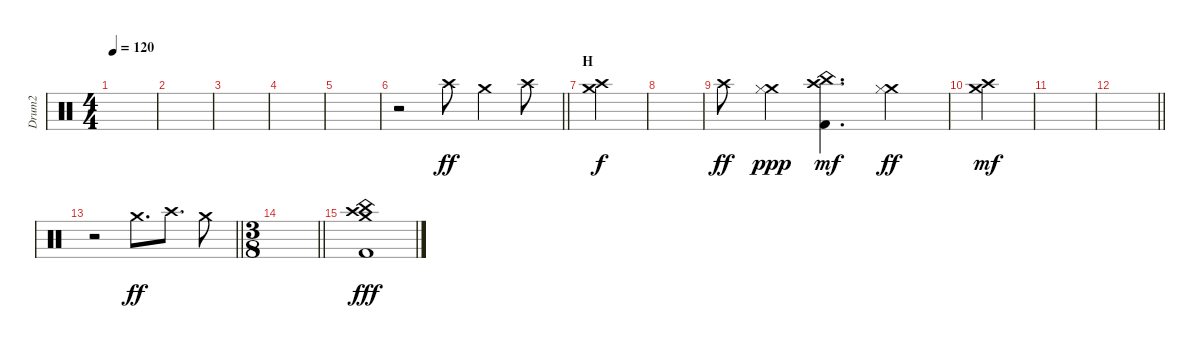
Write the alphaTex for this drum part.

\track ("Drum2" "Drum2") {instrument percussion}
\staff {score}
\articulation defaults
\ts (4 4)
\tempo 120
\clef neutral
\ks c
|
|
|
|
|
\barLineRight lightlight
r.2 "Crash high (hit)".8{dy ff} "Crash medium (hit)".4 "Crash high (hit)".8 |
\section ("" "H")
("Crash medium (hit)" "Crash high (hit)").4{dy f} |
|
"Crash high (hit)".8{dy ff} ("Crash medium (hit)" "Hi-Hat (closed)").4{dy ppp} ("Crash high (hit)" "China (hit)" "Kick (hit) 2").4{d dy mf} ("Crash medium (hit)" "Hi-Hat (closed)").4{dy ff} |
("Crash medium (hit)" "Crash high (hit)").4{dy mf} |
|
\barLineRight lightlight
|
\barLineRight lightlight
r.2 "Crash medium (hit)".8{d dy ff} "Crash high (hit)".8{d} "Crash medium (hit)".8 |
\ts (3 8)
\barLineRight lightlight
|
("China (hit)" "Kick (hit) 2" "Crash high (hit)" "Crash medium (hit)").1{dy fff}
